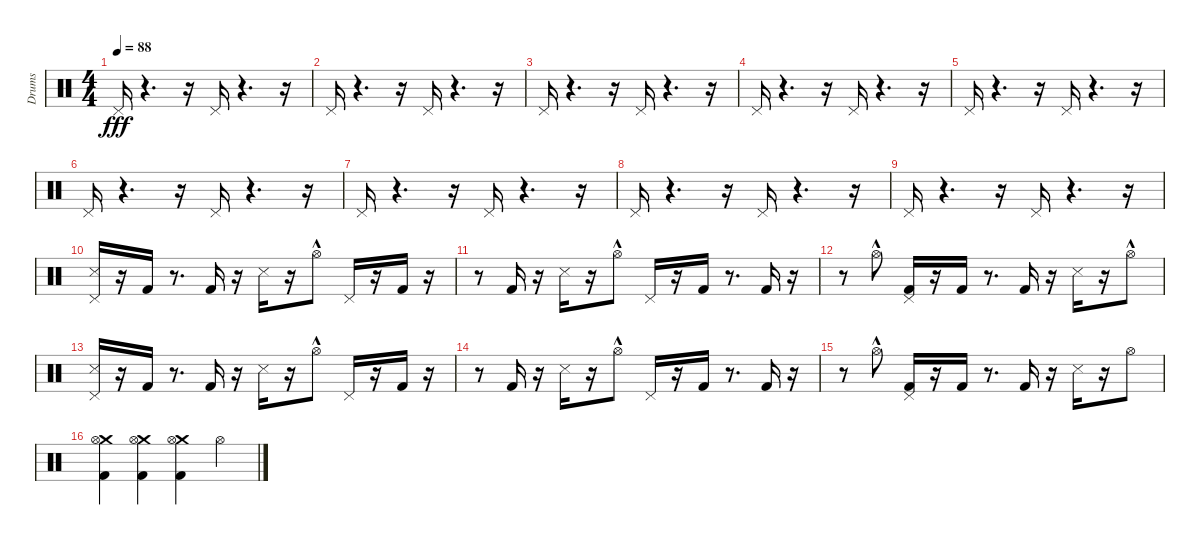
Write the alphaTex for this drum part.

\track ("Drums" "Drums") {instrument percussion}
\staff {score}
\articulation defaults
\ts (4 4)
\tempo 88
\clef neutral
\ks c "Pedal Hi-Hat (hit)".16{dy fff}
r.4{d} r.16 "Pedal Hi-Hat (hit)".16 r.4{d} r.16 |
"Pedal Hi-Hat (hit)".16 r.4{d} r.16 "Pedal Hi-Hat (hit)".16 r.4{d} r.16 |
"Pedal Hi-Hat (hit)".16 r.4{d} r.16 "Pedal Hi-Hat (hit)".16 r.4{d} r.16 |
"Pedal Hi-Hat (hit)".16 r.4{d} r.16 "Pedal Hi-Hat (hit)".16 r.4{d} r.16 |
"Pedal Hi-Hat (hit)".16 r.4{d} r.16 "Pedal Hi-Hat (hit)".16 r.4{d} r.16 |
"Pedal Hi-Hat (hit)".16 r.4{d} r.16 "Pedal Hi-Hat (hit)".16 r.4{d} r.16 |
"Pedal Hi-Hat (hit)".16 r.4{d} r.16 "Pedal Hi-Hat (hit)".16 r.4{d} r.16 |
"Pedal Hi-Hat (hit)".16 r.4{d} r.16 "Pedal Hi-Hat (hit)".16 r.4{d} r.16 |
"Pedal Hi-Hat (hit)".16 r.4{d} r.16 "Pedal Hi-Hat (hit)".16 r.4{d} r.16 |
("Pedal Hi-Hat (hit)" "Snare (side stick) 3").16 r.16 "Kick (hit) 2".16 r.8{d} "Kick (hit) 2".16 r.16 "Snare (side stick) 3".16 r.16 "Hi-Hat (open)"{hac}.8 "Pedal Hi-Hat (hit)".16 r.16 "Kick (hit) 2".16 r.16 |
r.8 "Kick (hit) 2".16 r.16 "Snare (side stick) 3".16 r.16 "Hi-Hat (open)"{hac}.8 "Pedal Hi-Hat (hit)".16 r.16 "Kick (hit) 2".16 r.8{d} "Kick (hit) 2".16 r.16 |
r.8 "Hi-Hat (open)"{hac}.8 ("Pedal Hi-Hat (hit)" "Kick (hit) 2").16 r.16 "Kick (hit) 2".16 r.8{d} "Kick (hit) 2".16 r.16 "Snare (side stick) 3".16 r.16 "Hi-Hat (open)"{hac}.8 |
("Pedal Hi-Hat (hit)" "Snare (side stick) 3").16 r.16 "Kick (hit) 2".16 r.8{d} "Kick (hit) 2".16 r.16 "Snare (side stick) 3".16 r.16 "Hi-Hat (open)"{hac}.8 "Pedal Hi-Hat (hit)".16 r.16 "Kick (hit) 2".16 r.16 |
r.8 "Kick (hit) 2".16 r.16 "Snare (side stick) 3".16 r.16 "Hi-Hat (open)"{hac}.8 "Pedal Hi-Hat (hit)".16 r.16 "Kick (hit) 2".16 r.8{d} "Kick (hit) 2".16 r.16 |
r.8 "Hi-Hat (open)"{hac}.8 ("Pedal Hi-Hat (hit)" "Kick (hit) 2").16 r.16 "Kick (hit) 2".16 r.8{d} "Kick (hit) 2".16 r.16 "Snare (side stick) 3".16 r.16 "Hi-Hat (open)".8 |
("Crash medium (hit)" "Kick (hit) 2" "Hi-Hat (open)").4 ("Crash medium (hit)" "Kick (hit) 2" "Hi-Hat (open)").4 ("Crash medium (hit)" "Kick (hit) 2" "Hi-Hat (open)").4 "Hi-Hat (open)".4
